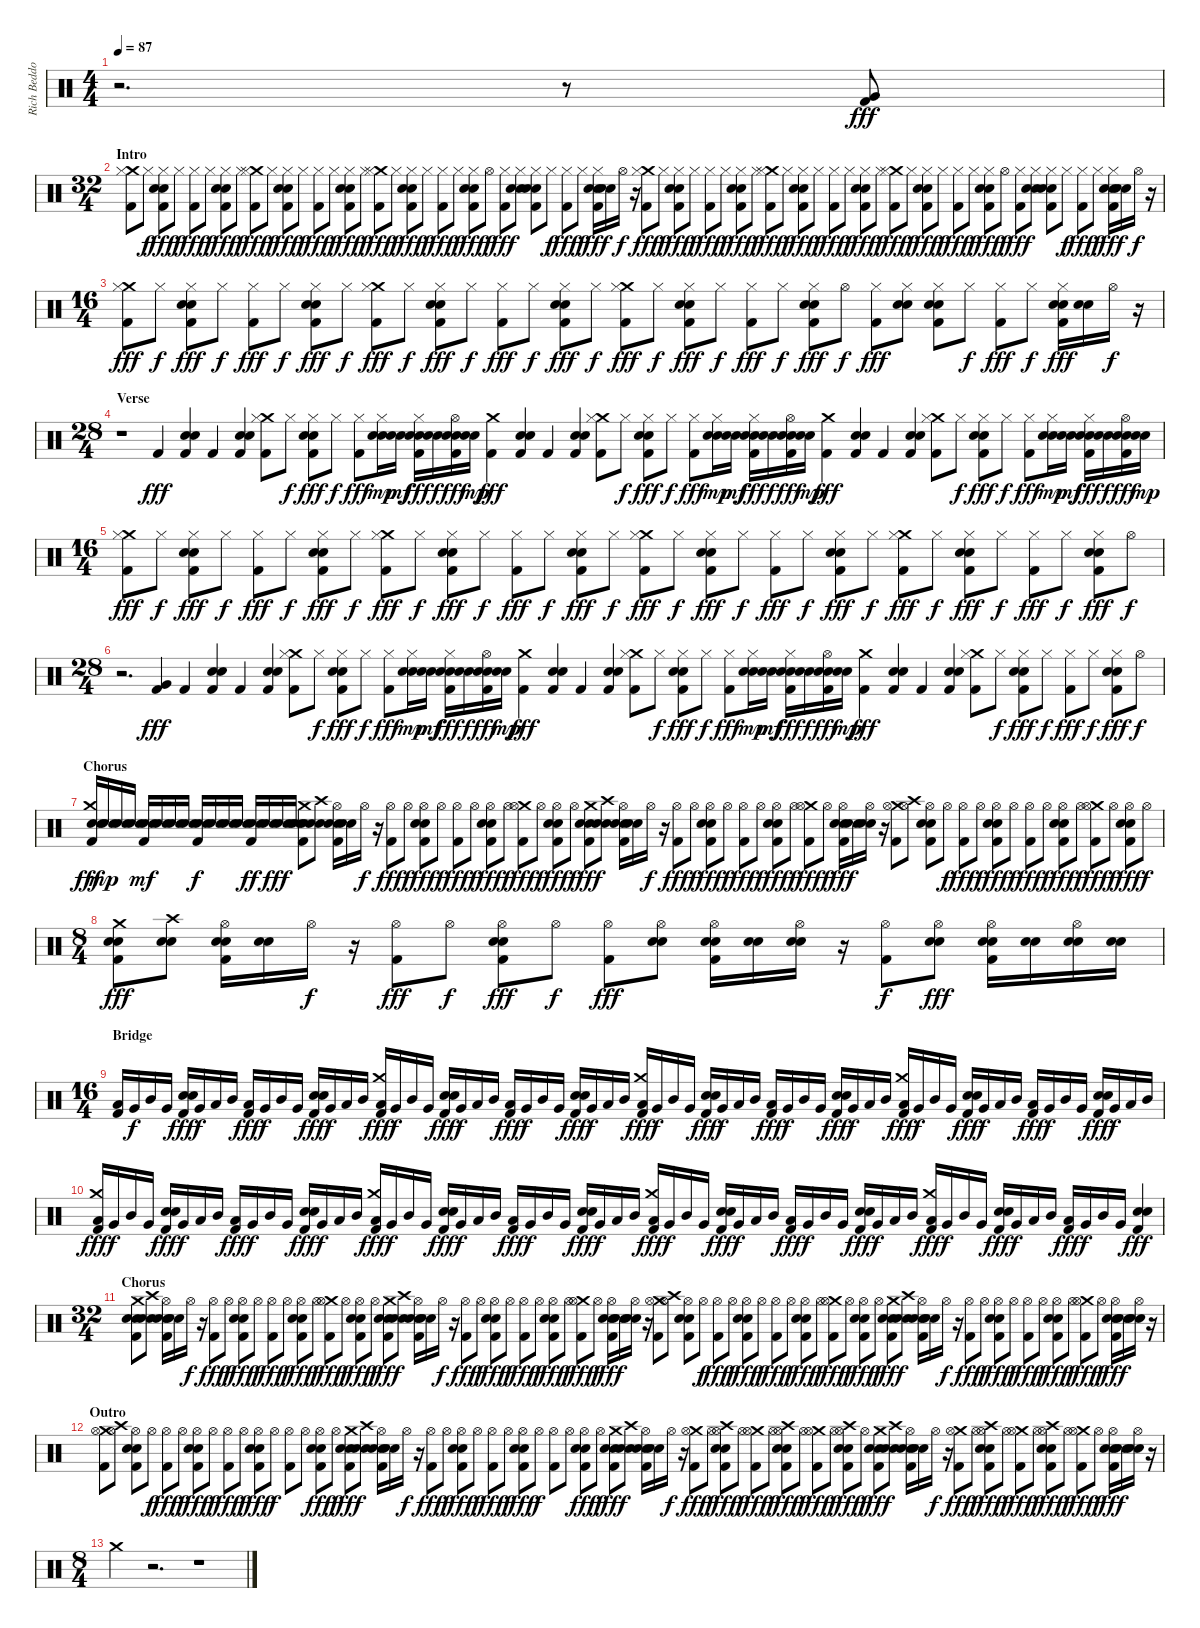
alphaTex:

\track ("Rich Beddoe" "Rich Beddo") {instrument percussion}
\staff {score}
\articulation defaults
\ts (4 4)
\tempo 87
\clef neutral
\ks c
r.2{d dy fff} r.8 ("Very Low Tom (hit)" "Kick (hit) 2").8 |
\ts (32 4)
\section ("" "Intro")
("Crash medium (hit)" "Hi-Hat (closed)" "Kick (hit) 2").8 "Hi-Hat (closed)".8{dy f} ("Electric Snare (hit)" "Hi-Hat (closed)" "Electric Snare (hit)" "Kick (hit) 2").8{dy fff} "Hi-Hat (closed)".8{dy f} ("Hi-Hat (closed)" "Kick (hit) 2").8{dy fff} "Hi-Hat (closed)".8{dy f} ("Electric Snare (hit)" "Hi-Hat (closed)" "Electric Snare (hit)" "Kick (hit) 2").8{dy fff} "Hi-Hat (closed)".8{dy f} ("Crash medium (hit)" "Hi-Hat (closed)" "Kick (hit) 2").8{dy fff} "Hi-Hat (closed)".8{dy f} ("Electric Snare (hit)" "Hi-Hat (closed)" "Electric Snare (hit)" "Kick (hit) 2").8{dy fff} "Hi-Hat (closed)".8{dy f} ("Hi-Hat (closed)" "Kick (hit) 2").8{dy fff} "Hi-Hat (closed)".8{dy f} ("Electric Snare (hit)" "Hi-Hat (closed)" "Electric Snare (hit)" "Kick (hit) 2").8{dy fff} "Hi-Hat (closed)".8{dy f} ("Crash medium (hit)" "Hi-Hat (closed)" "Kick (hit) 2").8{dy fff} "Hi-Hat (closed)".8{dy f} ("Electric Snare (hit)" "Hi-Hat (closed)" "Electric Snare (hit)" "Kick (hit) 2").8{dy fff} "Hi-Hat (closed)".8{dy f} ("Hi-Hat (closed)" "Kick (hit) 2").8{dy fff} "Hi-Hat (closed)".8{dy f} ("Electric Snare (hit)" "Hi-Hat (closed)" "Electric Snare (hit)" "Kick (hit) 2").8{dy fff} "Hi-Hat (open)".8{dy f} ("Hi-Hat (closed)" "Kick (hit) 2").8{dy fff} ("Electric Snare (hit)" "Hi-Hat (closed)" "Electric Snare (hit)").8 ("Electric Snare (hit)" "Hi-Hat (closed)" "Electric Snare (hit)" "Kick (hit) 2").8 "Hi-Hat (closed)".8{dy f} ("Hi-Hat (closed)" "Kick (hit) 2").8{dy fff} "Hi-Hat (closed)".8{dy f} ("Electric Snare (hit)" "Hi-Hat (closed)" "Electric Snare (hit)" "Kick (hit) 2").16{dy fff} ("Electric Snare (hit)" "Electric Snare (hit)").16 "Hi-Hat (open)".16{dy f} r.16 ("Crash medium (hit)" "Hi-Hat (closed)" "Kick (hit) 2").8{dy fff} "Hi-Hat (closed)".8{dy f} ("Electric Snare (hit)" "Hi-Hat (closed)" "Electric Snare (hit)" "Kick (hit) 2").8{dy fff} "Hi-Hat (closed)".8{dy f} ("Hi-Hat (closed)" "Kick (hit) 2").8{dy fff} "Hi-Hat (closed)".8{dy f} ("Electric Snare (hit)" "Hi-Hat (closed)" "Electric Snare (hit)" "Kick (hit) 2").8{dy fff} "Hi-Hat (closed)".8{dy f} ("Crash medium (hit)" "Hi-Hat (closed)" "Kick (hit) 2").8{dy fff} "Hi-Hat (closed)".8{dy f} ("Electric Snare (hit)" "Hi-Hat (closed)" "Electric Snare (hit)" "Kick (hit) 2").8{dy fff} "Hi-Hat (closed)".8{dy f} ("Hi-Hat (closed)" "Kick (hit) 2").8{dy fff} "Hi-Hat (closed)".8{dy f} ("Electric Snare (hit)" "Hi-Hat (closed)" "Electric Snare (hit)" "Kick (hit) 2").8{dy fff} "Hi-Hat (closed)".8{dy f} ("Crash medium (hit)" "Hi-Hat (closed)" "Kick (hit) 2").8{dy fff} "Hi-Hat (closed)".8{dy f} ("Electric Snare (hit)" "Hi-Hat (closed)" "Electric Snare (hit)" "Kick (hit) 2").8{dy fff} "Hi-Hat (closed)".8{dy f} ("Hi-Hat (closed)" "Kick (hit) 2").8{dy fff} "Hi-Hat (closed)".8{dy f} ("Electric Snare (hit)" "Hi-Hat (closed)" "Electric Snare (hit)" "Kick (hit) 2").8{dy fff} "Hi-Hat (open)".8{dy f} ("Hi-Hat (closed)" "Kick (hit) 2").8{dy fff} ("Electric Snare (hit)" "Hi-Hat (closed)" "Electric Snare (hit)").8 ("Electric Snare (hit)" "Hi-Hat (closed)" "Electric Snare (hit)" "Kick (hit) 2").8 "Hi-Hat (closed)".8{dy f} ("Hi-Hat (closed)" "Kick (hit) 2").8{dy fff} "Hi-Hat (closed)".8{dy f} ("Electric Snare (hit)" "Hi-Hat (closed)" "Electric Snare (hit)" "Kick (hit) 2").16{dy fff} ("Electric Snare (hit)" "Electric Snare (hit)").16 "Hi-Hat (open)".16{dy f} r.16 |
\ts (16 4)
("Crash medium (hit)" "Hi-Hat (closed)" "Kick (hit) 2").8{dy fff} "Hi-Hat (closed)".8{dy f} ("Electric Snare (hit)" "Hi-Hat (closed)" "Electric Snare (hit)" "Kick (hit) 2").8{dy fff} "Hi-Hat (closed)".8{dy f} ("Hi-Hat (closed)" "Kick (hit) 2").8{dy fff} "Hi-Hat (closed)".8{dy f} ("Electric Snare (hit)" "Hi-Hat (closed)" "Electric Snare (hit)" "Kick (hit) 2").8{dy fff} "Hi-Hat (closed)".8{dy f} ("Crash medium (hit)" "Hi-Hat (closed)" "Kick (hit) 2").8{dy fff} "Hi-Hat (closed)".8{dy f} ("Electric Snare (hit)" "Hi-Hat (closed)" "Electric Snare (hit)" "Kick (hit) 2").8{dy fff} "Hi-Hat (closed)".8{dy f} ("Hi-Hat (closed)" "Kick (hit) 2").8{dy fff} "Hi-Hat (closed)".8{dy f} ("Electric Snare (hit)" "Hi-Hat (closed)" "Electric Snare (hit)" "Kick (hit) 2").8{dy fff} "Hi-Hat (closed)".8{dy f} ("Crash medium (hit)" "Hi-Hat (closed)" "Kick (hit) 2").8{dy fff} "Hi-Hat (closed)".8{dy f} ("Electric Snare (hit)" "Hi-Hat (closed)" "Electric Snare (hit)" "Kick (hit) 2").8{dy fff} "Hi-Hat (closed)".8{dy f} ("Hi-Hat (closed)" "Kick (hit) 2").8{dy fff} "Hi-Hat (closed)".8{dy f} ("Electric Snare (hit)" "Hi-Hat (closed)" "Electric Snare (hit)" "Kick (hit) 2").8{dy fff} "Hi-Hat (open)".8{dy f} ("Hi-Hat (closed)" "Kick (hit) 2").8{dy fff} ("Electric Snare (hit)" "Hi-Hat (closed)" "Electric Snare (hit)").8 ("Electric Snare (hit)" "Hi-Hat (closed)" "Electric Snare (hit)" "Kick (hit) 2").8 "Hi-Hat (closed)".8{dy f} ("Hi-Hat (closed)" "Kick (hit) 2").8{dy fff} "Hi-Hat (closed)".8{dy f} ("Electric Snare (hit)" "Hi-Hat (closed)" "Electric Snare (hit)" "Kick (hit) 2").16{dy fff} ("Electric Snare (hit)" "Electric Snare (hit)").16 "Hi-Hat (open)".16{dy f} r.16 |
\ts (28 4)
\section ("" "Verse")
r.1 "Kick (hit) 2".4{dy fff} ("Electric Snare (hit)" "Electric Snare (hit)" "Kick (hit) 2").4 "Kick (hit) 2".4 ("Electric Snare (hit)" "Electric Snare (hit)" "Kick (hit) 2").4 ("Crash medium (hit)" "Hi-Hat (closed)" "Kick (hit) 2").8 "Hi-Hat (closed)".8{dy f} ("Electric Snare (hit)" "Hi-Hat (closed)" "Electric Snare (hit)" "Kick (hit) 2").8{dy fff} "Hi-Hat (closed)".8{dy f} ("Hi-Hat (closed)" "Kick (hit) 2").8{dy fff} ("Electric Snare (hit)" "Hi-Hat (closed)" "Electric Snare (hit)").16{dy mp} ("Electric Snare (hit)" "Electric Snare (hit)").16{dy mf} ("Electric Snare (hit)" "Hi-Hat (closed)" "Electric Snare (hit)" "Kick (hit) 2").16{dy fff} ("Electric Snare (hit)" "Electric Snare (hit)").16{dy f} ("Electric Snare (hit)" "Hi-Hat (open)" "Electric Snare (hit)" "Kick (hit) 2").16{dy fff} ("Electric Snare (hit)" "Electric Snare (hit)").16{dy mp} ("Crash medium (hit)" "Kick (hit) 2").4{dy fff} ("Electric Snare (hit)" "Electric Snare (hit)" "Kick (hit) 2").4 "Kick (hit) 2".4 ("Electric Snare (hit)" "Electric Snare (hit)" "Kick (hit) 2").4 ("Crash medium (hit)" "Hi-Hat (closed)" "Kick (hit) 2").8 "Hi-Hat (closed)".8{dy f} ("Electric Snare (hit)" "Hi-Hat (closed)" "Electric Snare (hit)" "Kick (hit) 2").8{dy fff} "Hi-Hat (closed)".8{dy f} ("Hi-Hat (closed)" "Kick (hit) 2").8{dy fff} ("Electric Snare (hit)" "Hi-Hat (closed)" "Electric Snare (hit)").16{dy mp} ("Electric Snare (hit)" "Electric Snare (hit)").16{dy mf} ("Electric Snare (hit)" "Hi-Hat (closed)" "Electric Snare (hit)" "Kick (hit) 2").16{dy fff} ("Electric Snare (hit)" "Electric Snare (hit)").16{dy f} ("Electric Snare (hit)" "Hi-Hat (open)" "Electric Snare (hit)" "Kick (hit) 2").16{dy fff} ("Electric Snare (hit)" "Electric Snare (hit)").16{dy mp} ("Crash medium (hit)" "Kick (hit) 2").4{dy fff} ("Electric Snare (hit)" "Electric Snare (hit)" "Kick (hit) 2").4 "Kick (hit) 2".4 ("Electric Snare (hit)" "Electric Snare (hit)" "Kick (hit) 2").4 ("Crash medium (hit)" "Hi-Hat (closed)" "Kick (hit) 2").8 "Hi-Hat (closed)".8{dy f} ("Electric Snare (hit)" "Hi-Hat (closed)" "Electric Snare (hit)" "Kick (hit) 2").8{dy fff} "Hi-Hat (closed)".8{dy f} ("Hi-Hat (closed)" "Kick (hit) 2").8{dy fff} ("Electric Snare (hit)" "Hi-Hat (closed)" "Electric Snare (hit)").16{dy mp} ("Electric Snare (hit)" "Electric Snare (hit)").16{dy mf} ("Electric Snare (hit)" "Hi-Hat (closed)" "Electric Snare (hit)" "Kick (hit) 2").16{dy fff} ("Electric Snare (hit)" "Electric Snare (hit)").16{dy f} ("Electric Snare (hit)" "Hi-Hat (open)" "Electric Snare (hit)" "Kick (hit) 2").16{dy fff} ("Electric Snare (hit)" "Electric Snare (hit)").16{dy mp} |
\ts (16 4)
("Crash medium (hit)" "Hi-Hat (closed)" "Kick (hit) 2").8{dy fff} "Hi-Hat (closed)".8{dy f} ("Electric Snare (hit)" "Hi-Hat (closed)" "Electric Snare (hit)" "Kick (hit) 2").8{dy fff} "Hi-Hat (closed)".8{dy f} ("Hi-Hat (closed)" "Kick (hit) 2").8{dy fff} "Hi-Hat (closed)".8{dy f} ("Electric Snare (hit)" "Hi-Hat (closed)" "Electric Snare (hit)" "Kick (hit) 2").8{dy fff} "Hi-Hat (closed)".8{dy f} ("Crash medium (hit)" "Hi-Hat (closed)" "Kick (hit) 2").8{dy fff} "Hi-Hat (closed)".8{dy f} ("Electric Snare (hit)" "Hi-Hat (closed)" "Electric Snare (hit)" "Kick (hit) 2").8{dy fff} "Hi-Hat (closed)".8{dy f} ("Hi-Hat (closed)" "Kick (hit) 2").8{dy fff} "Hi-Hat (closed)".8{dy f} ("Electric Snare (hit)" "Hi-Hat (closed)" "Electric Snare (hit)" "Kick (hit) 2").8{dy fff} "Hi-Hat (closed)".8{dy f} ("Crash medium (hit)" "Hi-Hat (closed)" "Kick (hit) 2").8{dy fff} "Hi-Hat (closed)".8{dy f} ("Electric Snare (hit)" "Hi-Hat (closed)" "Electric Snare (hit)" "Kick (hit) 2").8{dy fff} "Hi-Hat (closed)".8{dy f} ("Hi-Hat (closed)" "Kick (hit) 2").8{dy fff} "Hi-Hat (closed)".8{dy f} ("Electric Snare (hit)" "Hi-Hat (closed)" "Electric Snare (hit)" "Kick (hit) 2").8{dy fff} "Hi-Hat (closed)".8{dy f} ("Crash medium (hit)" "Hi-Hat (closed)" "Kick (hit) 2").8{dy fff} "Hi-Hat (closed)".8{dy f} ("Electric Snare (hit)" "Hi-Hat (closed)" "Electric Snare (hit)" "Kick (hit) 2").8{dy fff} "Hi-Hat (closed)".8{dy f} ("Hi-Hat (closed)" "Kick (hit) 2").8{dy fff} "Hi-Hat (closed)".8{dy f} ("Electric Snare (hit)" "Hi-Hat (closed)" "Electric Snare (hit)" "Kick (hit) 2").8{dy fff} "Hi-Hat (open)".8{dy f} |
\ts (28 4)
r.2{d} ("Very Low Tom (hit)" "Kick (hit) 2").4{dy fff} "Kick (hit) 2".4 ("Electric Snare (hit)" "Electric Snare (hit)" "Kick (hit) 2").4 "Kick (hit) 2".4 ("Electric Snare (hit)" "Electric Snare (hit)" "Kick (hit) 2").4 ("Crash medium (hit)" "Hi-Hat (closed)" "Kick (hit) 2").8 "Hi-Hat (closed)".8{dy f} ("Electric Snare (hit)" "Hi-Hat (closed)" "Electric Snare (hit)" "Kick (hit) 2").8{dy fff} "Hi-Hat (closed)".8{dy f} ("Hi-Hat (closed)" "Kick (hit) 2").8{dy fff} ("Electric Snare (hit)" "Hi-Hat (closed)" "Electric Snare (hit)").16{dy mp} ("Electric Snare (hit)" "Electric Snare (hit)").16{dy mf} ("Electric Snare (hit)" "Hi-Hat (closed)" "Electric Snare (hit)" "Kick (hit) 2").16{dy fff} ("Electric Snare (hit)" "Electric Snare (hit)").16{dy f} ("Electric Snare (hit)" "Hi-Hat (open)" "Electric Snare (hit)" "Kick (hit) 2").16{dy fff} ("Electric Snare (hit)" "Electric Snare (hit)").16{dy mp} ("Crash medium (hit)" "Kick (hit) 2").4{dy fff} ("Electric Snare (hit)" "Electric Snare (hit)" "Kick (hit) 2").4 "Kick (hit) 2".4 ("Electric Snare (hit)" "Electric Snare (hit)" "Kick (hit) 2").4 ("Crash medium (hit)" "Hi-Hat (closed)" "Kick (hit) 2").8 "Hi-Hat (closed)".8{dy f} ("Electric Snare (hit)" "Hi-Hat (closed)" "Electric Snare (hit)" "Kick (hit) 2").8{dy fff} "Hi-Hat (closed)".8{dy f} ("Hi-Hat (closed)" "Kick (hit) 2").8{dy fff} ("Electric Snare (hit)" "Hi-Hat (closed)" "Electric Snare (hit)").16{dy mp} ("Electric Snare (hit)" "Electric Snare (hit)").16{dy mf} ("Electric Snare (hit)" "Hi-Hat (closed)" "Electric Snare (hit)" "Kick (hit) 2").16{dy fff} ("Electric Snare (hit)" "Electric Snare (hit)").16{dy f} ("Electric Snare (hit)" "Hi-Hat (open)" "Electric Snare (hit)" "Kick (hit) 2").16{dy fff} ("Electric Snare (hit)" "Electric Snare (hit)").16{dy mp} ("Crash medium (hit)" "Kick (hit) 2").4{dy fff} ("Electric Snare (hit)" "Electric Snare (hit)" "Kick (hit) 2").4 "Kick (hit) 2".4 ("Electric Snare (hit)" "Electric Snare (hit)" "Kick (hit) 2").4 ("Crash medium (hit)" "Hi-Hat (closed)" "Kick (hit) 2").8 "Hi-Hat (closed)".8{dy f} ("Electric Snare (hit)" "Hi-Hat (closed)" "Electric Snare (hit)" "Kick (hit) 2").8{dy fff} "Hi-Hat (closed)".8{dy f} ("Hi-Hat (closed)" "Kick (hit) 2").8{dy fff} "Hi-Hat (closed)".8{dy f} ("Electric Snare (hit)" "Hi-Hat (closed)" "Electric Snare (hit)" "Kick (hit) 2").8{dy fff} "Hi-Hat (open)".8{dy f} |
\section ("" "Chorus")
("Crash medium (hit)" "Electric Snare (hit)" "Electric Snare (hit)" "Kick (hit) 2").16{dy fff} ("Electric Snare (hit)" "Electric Snare (hit)").16{dy mp} ("Electric Snare (hit)" "Electric Snare (hit)").16 ("Electric Snare (hit)" "Electric Snare (hit)").16 ("Electric Snare (hit)" "Electric Snare (hit)" "Kick (hit) 2").16{dy mf} ("Electric Snare (hit)" "Electric Snare (hit)").16 ("Electric Snare (hit)" "Electric Snare (hit)").16 ("Electric Snare (hit)" "Electric Snare (hit)").16 ("Electric Snare (hit)" "Electric Snare (hit)" "Kick (hit) 2").16{dy f} ("Electric Snare (hit)" "Electric Snare (hit)").16 ("Electric Snare (hit)" "Electric Snare (hit)").16 ("Electric Snare (hit)" "Electric Snare (hit)").16 ("Electric Snare (hit)" "Electric Snare (hit)" "Kick (hit) 2").16{dy ff} ("Electric Snare (hit)" "Electric Snare (hit)").16 ("Electric Snare (hit)" "Electric Snare (hit)").16{dy fff} ("Electric Snare (hit)" "Electric Snare (hit)").16 ("Crash medium (hit)" "Electric Snare (hit)" "Electric Snare (hit)" "Kick (hit) 2").8 ("Crash high (hit)" "Electric Snare (hit)" "Electric Snare (hit)").8 ("Electric Snare (hit)" "Hi-Hat (open)" "Electric Snare (hit)" "Kick (hit) 2").16 ("Electric Snare (hit)" "Electric Snare (hit)").16 "Hi-Hat (open)".16{dy f} r.16 ("Hi-Hat (open)" "Kick (hit) 2").8{dy fff} "Hi-Hat (open)".8{dy f} ("Electric Snare (hit)" "Hi-Hat (open)" "Electric Snare (hit)" "Kick (hit) 2").8{dy fff} "Hi-Hat (open)".8{dy f} ("Hi-Hat (open)" "Kick (hit) 2").8{dy fff} "Hi-Hat (open)".8{dy f} ("Electric Snare (hit)" "Hi-Hat (open)" "Electric Snare (hit)" "Kick (hit) 2").8{dy fff} "Hi-Hat (open)".8{dy f} ("Crash medium (hit)" "Hi-Hat (open)" "Kick (hit) 2").8{dy fff} "Hi-Hat (open)".8{dy f} ("Electric Snare (hit)" "Hi-Hat (open)" "Electric Snare (hit)" "Kick (hit) 2").8{dy fff} "Hi-Hat (open)".8{dy f} ("Crash medium (hit)" "Electric Snare (hit)" "Electric Snare (hit)" "Kick (hit) 2").8{dy fff} ("Crash high (hit)" "Electric Snare (hit)" "Electric Snare (hit)").8 ("Electric Snare (hit)" "Hi-Hat (open)" "Electric Snare (hit)" "Kick (hit) 2").16 ("Electric Snare (hit)" "Electric Snare (hit)").16 "Hi-Hat (open)".16{dy f} r.16 ("Hi-Hat (open)" "Kick (hit) 2").8{dy fff} "Hi-Hat (open)".8{dy f} ("Electric Snare (hit)" "Hi-Hat (open)" "Electric Snare (hit)" "Kick (hit) 2").8{dy fff} "Hi-Hat (open)".8{dy f} ("Hi-Hat (open)" "Kick (hit) 2").8{dy fff} "Hi-Hat (open)".8{dy f} ("Electric Snare (hit)" "Hi-Hat (open)" "Electric Snare (hit)" "Kick (hit) 2").8{dy fff} "Hi-Hat (open)".8{dy f} ("Crash medium (hit)" "Hi-Hat (open)" "Kick (hit) 2").8{dy fff} "Hi-Hat (open)".8{dy f} ("Electric Snare (hit)" "Hi-Hat (open)" "Electric Snare (hit)" "Kick (hit) 2").16{dy fff} ("Electric Snare (hit)" "Electric Snare (hit)").16 ("Electric Snare (hit)" "Hi-Hat (open)" "Electric Snare (hit)").16 r.16 ("Crash medium (hit)" "Hi-Hat (open)" "Kick (hit) 2").8 ("Crash high (hit)" "Hi-Hat (open)").8 ("Electric Snare (hit)" "Hi-Hat (open)" "Electric Snare (hit)" "Kick (hit) 2").8 "Hi-Hat (open)".8{dy f} ("Hi-Hat (open)" "Kick (hit) 2").8{dy fff} "Hi-Hat (open)".8{dy f} ("Electric Snare (hit)" "Hi-Hat (open)" "Electric Snare (hit)" "Kick (hit) 2").8{dy fff} "Hi-Hat (open)".8{dy f} ("Hi-Hat (open)" "Kick (hit) 2").8{dy fff} "Hi-Hat (open)".8{dy f} ("Electric Snare (hit)" "Hi-Hat (open)" "Electric Snare (hit)" "Kick (hit) 2").8{dy fff} "Hi-Hat (open)".8{dy f} ("Crash medium (hit)" "Hi-Hat (open)" "Kick (hit) 2").8{dy fff} "Hi-Hat (open)".8{dy f} ("Electric Snare (hit)" "Hi-Hat (open)" "Electric Snare (hit)" "Kick (hit) 2").8{dy fff} "Hi-Hat (open)".8{dy f} |
\ts (8 4)
("Crash medium (hit)" "Electric Snare (hit)" "Electric Snare (hit)" "Kick (hit) 2").8{dy fff} ("Crash high (hit)" "Electric Snare (hit)" "Electric Snare (hit)").8 ("Electric Snare (hit)" "Hi-Hat (open)" "Electric Snare (hit)" "Kick (hit) 2").16 ("Electric Snare (hit)" "Electric Snare (hit)").16 "Hi-Hat (open)".16{dy f} r.16 ("Hi-Hat (open)" "Kick (hit) 2").8{dy fff} "Hi-Hat (open)".8{dy f} ("Electric Snare (hit)" "Hi-Hat (open)" "Electric Snare (hit)" "Kick (hit) 2").8{dy fff} "Hi-Hat (open)".8{dy f} ("Hi-Hat (open)" "Kick (hit) 2").8{dy fff} ("Electric Snare (hit)" "Hi-Hat (open)" "Electric Snare (hit)").8 ("Electric Snare (hit)" "Hi-Hat (open)" "Electric Snare (hit)" "Kick (hit) 2").16 ("Electric Snare (hit)" "Electric Snare (hit)").16 ("Electric Snare (hit)" "Hi-Hat (open)" "Electric Snare (hit)").16 r.16 ("Hi-Hat (open)" "Kick (hit) 2").8{dy f} ("Electric Snare (hit)" "Hi-Hat (open)" "Electric Snare (hit)").8{dy fff} ("Electric Snare (hit)" "Hi-Hat (open)" "Electric Snare (hit)" "Kick (hit) 2").16 ("Electric Snare (hit)" "Electric Snare (hit)").16 ("Electric Snare (hit)" "Hi-Hat (open)" "Electric Snare (hit)").16 ("Electric Snare (hit)" "Electric Snare (hit)").16 |
\ts (16 4)
\section ("" "Bridge")
("Low Tom (hit)" "Kick (hit) 2").16 "Very Low Tom (hit)".16{dy f} "Mid Tom (hit)".16 "Very Low Tom (hit)".16 ("Electric Snare (hit)" "Electric Snare (hit)" "Kick (hit) 2").16{dy fff} "Very Low Tom (hit)".16{dy f} "Low Tom (hit)".16 "Mid Tom (hit)".16 ("Low Tom (hit)" "Kick (hit) 2").16{dy fff} "Very Low Tom (hit)".16{dy f} "Mid Tom (hit)".16 "Very Low Tom (hit)".16 ("Electric Snare (hit)" "Electric Snare (hit)" "Kick (hit) 2").16{dy fff} "Very Low Tom (hit)".16{dy f} "Low Tom (hit)".16 "Mid Tom (hit)".16 ("Crash medium (hit)" "Low Tom (hit)" "Kick (hit) 2").16{dy fff} "Very Low Tom (hit)".16{dy f} "Mid Tom (hit)".16 "Very Low Tom (hit)".16 ("Electric Snare (hit)" "Electric Snare (hit)" "Kick (hit) 2").16{dy fff} "Very Low Tom (hit)".16{dy f} "Low Tom (hit)".16 "Mid Tom (hit)".16 ("Low Tom (hit)" "Kick (hit) 2").16{dy fff} "Very Low Tom (hit)".16{dy f} "Mid Tom (hit)".16 "Very Low Tom (hit)".16 ("Electric Snare (hit)" "Electric Snare (hit)" "Kick (hit) 2").16{dy fff} "Very Low Tom (hit)".16{dy f} "Low Tom (hit)".16 "Mid Tom (hit)".16 ("Crash medium (hit)" "Low Tom (hit)" "Kick (hit) 2").16{dy fff} "Very Low Tom (hit)".16{dy f} "Mid Tom (hit)".16 "Very Low Tom (hit)".16 ("Electric Snare (hit)" "Electric Snare (hit)" "Kick (hit) 2").16{dy fff} "Very Low Tom (hit)".16{dy f} "Low Tom (hit)".16 "Mid Tom (hit)".16 ("Low Tom (hit)" "Kick (hit) 2").16{dy fff} "Very Low Tom (hit)".16{dy f} "Mid Tom (hit)".16 "Very Low Tom (hit)".16 ("Electric Snare (hit)" "Electric Snare (hit)" "Kick (hit) 2").16{dy fff} "Very Low Tom (hit)".16{dy f} "Low Tom (hit)".16 "Mid Tom (hit)".16 ("Crash medium (hit)" "Low Tom (hit)" "Kick (hit) 2").16{dy fff} "Very Low Tom (hit)".16{dy f} "Mid Tom (hit)".16 "Very Low Tom (hit)".16 ("Electric Snare (hit)" "Electric Snare (hit)" "Kick (hit) 2").16{dy fff} "Very Low Tom (hit)".16{dy f} "Low Tom (hit)".16 "Mid Tom (hit)".16 ("Low Tom (hit)" "Kick (hit) 2").16{dy fff} "Very Low Tom (hit)".16{dy f} "Mid Tom (hit)".16 "Very Low Tom (hit)".16 ("Electric Snare (hit)" "Electric Snare (hit)" "Kick (hit) 2").16{dy fff} "Very Low Tom (hit)".16{dy f} "Low Tom (hit)".16 "Mid Tom (hit)".16 |
("Crash medium (hit)" "Low Tom (hit)" "Kick (hit) 2").16{dy fff} "Very Low Tom (hit)".16{dy f} "Mid Tom (hit)".16 "Very Low Tom (hit)".16 ("Electric Snare (hit)" "Electric Snare (hit)" "Kick (hit) 2").16{dy fff} "Very Low Tom (hit)".16{dy f} "Low Tom (hit)".16 "Mid Tom (hit)".16 ("Low Tom (hit)" "Kick (hit) 2").16{dy fff} "Very Low Tom (hit)".16{dy f} "Mid Tom (hit)".16 "Very Low Tom (hit)".16 ("Electric Snare (hit)" "Electric Snare (hit)" "Kick (hit) 2").16{dy fff} "Very Low Tom (hit)".16{dy f} "Low Tom (hit)".16 "Mid Tom (hit)".16 ("Crash medium (hit)" "Low Tom (hit)" "Kick (hit) 2").16{dy fff} "Very Low Tom (hit)".16{dy f} "Mid Tom (hit)".16 "Very Low Tom (hit)".16 ("Electric Snare (hit)" "Electric Snare (hit)" "Kick (hit) 2").16{dy fff} "Very Low Tom (hit)".16{dy f} "Low Tom (hit)".16 "Mid Tom (hit)".16 ("Low Tom (hit)" "Kick (hit) 2").16{dy fff} "Very Low Tom (hit)".16{dy f} "Mid Tom (hit)".16 "Very Low Tom (hit)".16 ("Electric Snare (hit)" "Electric Snare (hit)" "Kick (hit) 2").16{dy fff} "Very Low Tom (hit)".16{dy f} "Low Tom (hit)".16 "Mid Tom (hit)".16 ("Crash medium (hit)" "Low Tom (hit)" "Kick (hit) 2").16{dy fff} "Very Low Tom (hit)".16{dy f} "Mid Tom (hit)".16 "Very Low Tom (hit)".16 ("Electric Snare (hit)" "Electric Snare (hit)" "Kick (hit) 2").16{dy fff} "Very Low Tom (hit)".16{dy f} "Low Tom (hit)".16 "Mid Tom (hit)".16 ("Low Tom (hit)" "Kick (hit) 2").16{dy fff} "Very Low Tom (hit)".16{dy f} "Mid Tom (hit)".16 "Very Low Tom (hit)".16 ("Electric Snare (hit)" "Electric Snare (hit)" "Kick (hit) 2").16{dy fff} "Very Low Tom (hit)".16{dy f} "Low Tom (hit)".16 "Mid Tom (hit)".16 ("Crash medium (hit)" "Low Tom (hit)" "Kick (hit) 2").16{dy fff} "Very Low Tom (hit)".16{dy f} "Mid Tom (hit)".16 "Very Low Tom (hit)".16 ("Electric Snare (hit)" "Electric Snare (hit)" "Kick (hit) 2").16{dy fff} "Very Low Tom (hit)".16{dy f} "Low Tom (hit)".16 "Mid Tom (hit)".16 ("Low Tom (hit)" "Kick (hit) 2").16{dy fff} "Very Low Tom (hit)".16{dy f} "Mid Tom (hit)".16 "Very Low Tom (hit)".16 ("Electric Snare (hit)" "Electric Snare (hit)" "Kick (hit) 2").4{dy fff} |
\ts (32 4)
\section ("" "Chorus")
("Crash medium (hit)" "Electric Snare (hit)" "Electric Snare (hit)" "Kick (hit) 2").8 ("Crash high (hit)" "Electric Snare (hit)" "Electric Snare (hit)").8 ("Electric Snare (hit)" "Hi-Hat (open)" "Electric Snare (hit)" "Kick (hit) 2").16 ("Electric Snare (hit)" "Electric Snare (hit)").16 "Hi-Hat (open)".16{dy f} r.16 ("Hi-Hat (open)" "Kick (hit) 2").8{dy fff} "Hi-Hat (open)".8{dy f} ("Electric Snare (hit)" "Hi-Hat (open)" "Electric Snare (hit)" "Kick (hit) 2").8{dy fff} "Hi-Hat (open)".8{dy f} ("Hi-Hat (open)" "Kick (hit) 2").8{dy fff} "Hi-Hat (open)".8{dy f} ("Electric Snare (hit)" "Hi-Hat (open)" "Electric Snare (hit)" "Kick (hit) 2").8{dy fff} "Hi-Hat (open)".8{dy f} ("Crash medium (hit)" "Hi-Hat (open)" "Kick (hit) 2").8{dy fff} "Hi-Hat (open)".8{dy f} ("Electric Snare (hit)" "Hi-Hat (open)" "Electric Snare (hit)" "Kick (hit) 2").8{dy fff} "Hi-Hat (open)".8{dy f} ("Crash medium (hit)" "Electric Snare (hit)" "Electric Snare (hit)" "Kick (hit) 2").8{dy fff} ("Crash high (hit)" "Electric Snare (hit)" "Electric Snare (hit)").8 ("Electric Snare (hit)" "Hi-Hat (open)" "Electric Snare (hit)" "Kick (hit) 2").16 ("Electric Snare (hit)" "Electric Snare (hit)").16 "Hi-Hat (open)".16{dy f} r.16 ("Hi-Hat (open)" "Kick (hit) 2").8{dy fff} "Hi-Hat (open)".8{dy f} ("Electric Snare (hit)" "Hi-Hat (open)" "Electric Snare (hit)" "Kick (hit) 2").8{dy fff} "Hi-Hat (open)".8{dy f} ("Hi-Hat (open)" "Kick (hit) 2").8{dy fff} "Hi-Hat (open)".8{dy f} ("Electric Snare (hit)" "Hi-Hat (open)" "Electric Snare (hit)" "Kick (hit) 2").8{dy fff} "Hi-Hat (open)".8{dy f} ("Crash medium (hit)" "Hi-Hat (open)" "Kick (hit) 2").8{dy fff} "Hi-Hat (open)".8{dy f} ("Electric Snare (hit)" "Hi-Hat (open)" "Electric Snare (hit)" "Kick (hit) 2").16{dy fff} ("Electric Snare (hit)" "Electric Snare (hit)").16 ("Electric Snare (hit)" "Hi-Hat (open)" "Electric Snare (hit)").16 r.16 ("Crash medium (hit)" "Hi-Hat (open)" "Kick (hit) 2").8 ("Crash high (hit)" "Hi-Hat (open)").8 ("Electric Snare (hit)" "Hi-Hat (open)" "Electric Snare (hit)" "Kick (hit) 2").8 "Hi-Hat (open)".8{dy f} ("Hi-Hat (open)" "Kick (hit) 2").8{dy fff} "Hi-Hat (open)".8{dy f} ("Electric Snare (hit)" "Hi-Hat (open)" "Electric Snare (hit)" "Kick (hit) 2").8{dy fff} "Hi-Hat (open)".8{dy f} ("Hi-Hat (open)" "Kick (hit) 2").8{dy fff} "Hi-Hat (open)".8{dy f} ("Electric Snare (hit)" "Hi-Hat (open)" "Electric Snare (hit)" "Kick (hit) 2").8{dy fff} "Hi-Hat (open)".8{dy f} ("Crash medium (hit)" "Hi-Hat (open)" "Kick (hit) 2").8{dy fff} "Hi-Hat (open)".8{dy f} ("Electric Snare (hit)" "Hi-Hat (open)" "Electric Snare (hit)" "Kick (hit) 2").8{dy fff} "Hi-Hat (open)".8{dy f} ("Crash medium (hit)" "Electric Snare (hit)" "Electric Snare (hit)" "Kick (hit) 2").8{dy fff} ("Crash high (hit)" "Electric Snare (hit)" "Electric Snare (hit)").8 ("Electric Snare (hit)" "Hi-Hat (open)" "Electric Snare (hit)" "Kick (hit) 2").16 ("Electric Snare (hit)" "Electric Snare (hit)").16 "Hi-Hat (open)".16{dy f} r.16 ("Hi-Hat (open)" "Kick (hit) 2").8{dy fff} "Hi-Hat (open)".8{dy f} ("Electric Snare (hit)" "Hi-Hat (open)" "Electric Snare (hit)" "Kick (hit) 2").8{dy fff} "Hi-Hat (open)".8{dy f} ("Hi-Hat (open)" "Kick (hit) 2").8{dy fff} "Hi-Hat (open)".8{dy f} ("Electric Snare (hit)" "Hi-Hat (open)" "Electric Snare (hit)" "Kick (hit) 2").8{dy fff} "Hi-Hat (open)".8{dy f} ("Crash medium (hit)" "Hi-Hat (open)" "Kick (hit) 2").8{dy fff} "Hi-Hat (open)".8{dy f} ("Electric Snare (hit)" "Hi-Hat (open)" "Electric Snare (hit)" "Kick (hit) 2").16{dy fff} ("Electric Snare (hit)" "Electric Snare (hit)").16 ("Electric Snare (hit)" "Hi-Hat (open)" "Electric Snare (hit)").16 r.16 |
\section ("" "Outro")
("Crash medium (hit)" "Hi-Hat (open)" "Kick (hit) 2").8 ("Crash high (hit)" "Hi-Hat (open)").8 ("Electric Snare (hit)" "Hi-Hat (open)" "Electric Snare (hit)" "Kick (hit) 2").8 "Hi-Hat (open)".8{dy f} ("Hi-Hat (open)" "Kick (hit) 2").8{dy fff} "Hi-Hat (open)".8{dy f} ("Electric Snare (hit)" "Hi-Hat (open)" "Electric Snare (hit)" "Kick (hit) 2").8{dy fff} "Hi-Hat (open)".8{dy f} ("Hi-Hat (open)" "Kick (hit) 2").8{dy fff} "Hi-Hat (open)".8{dy f} ("Electric Snare (hit)" "Hi-Hat (open)" "Electric Snare (hit)" "Kick (hit) 2").8{dy fff} "Hi-Hat (open)".8{dy f} ("Hi-Hat (open)" "Kick (hit) 2").8 "Hi-Hat (open)".8 ("Electric Snare (hit)" "Hi-Hat (open)" "Electric Snare (hit)" "Kick (hit) 2").8{dy fff} "Hi-Hat (open)".8{dy f} ("Crash medium (hit)" "Electric Snare (hit)" "Electric Snare (hit)" "Kick (hit) 2").8{dy fff} ("Crash high (hit)" "Electric Snare (hit)" "Electric Snare (hit)").8 ("Electric Snare (hit)" "Hi-Hat (open)" "Electric Snare (hit)" "Kick (hit) 2").16 ("Electric Snare (hit)" "Electric Snare (hit)").16 "Hi-Hat (open)".16{dy f} r.16 ("Hi-Hat (open)" "Kick (hit) 2").8{dy fff} "Hi-Hat (open)".8{dy f} ("Electric Snare (hit)" "Hi-Hat (open)" "Electric Snare (hit)" "Kick (hit) 2").8{dy fff} "Hi-Hat (open)".8{dy f} ("Hi-Hat (open)" "Kick (hit) 2").8{dy fff} "Hi-Hat (open)".8{dy f} ("Electric Snare (hit)" "Hi-Hat (open)" "Electric Snare (hit)" "Kick (hit) 2").8{dy fff} "Hi-Hat (open)".8{dy f} ("Hi-Hat (open)" "Kick (hit) 2").8 "Hi-Hat (open)".8 ("Electric Snare (hit)" "Hi-Hat (open)" "Electric Snare (hit)" "Kick (hit) 2").8{dy fff} "Hi-Hat (open)".8{dy f} ("Crash medium (hit)" "Electric Snare (hit)" "Electric Snare (hit)" "Kick (hit) 2").8{dy fff} ("Crash high (hit)" "Electric Snare (hit)" "Electric Snare (hit)").8 ("Electric Snare (hit)" "Hi-Hat (open)" "Electric Snare (hit)" "Kick (hit) 2").16 ("Electric Snare (hit)" "Electric Snare (hit)").16 "Hi-Hat (open)".16{dy f} r.16 ("Crash medium (hit)" "Hi-Hat (open)" "Kick (hit) 2").8{dy fff} "Hi-Hat (open)".8{dy f} ("Crash high (hit)" "Electric Snare (hit)" "Hi-Hat (open)" "Electric Snare (hit)" "Kick (hit) 2").8{dy fff} "Hi-Hat (open)".8{dy f} ("Crash medium (hit)" "Hi-Hat (open)" "Kick (hit) 2").8{dy fff} "Hi-Hat (open)".8{dy f} ("Crash high (hit)" "Electric Snare (hit)" "Hi-Hat (open)" "Electric Snare (hit)" "Kick (hit) 2").8{dy fff} "Hi-Hat (open)".8{dy f} ("Crash medium (hit)" "Hi-Hat (open)" "Kick (hit) 2").8{dy fff} "Hi-Hat (open)".8{dy f} ("Crash high (hit)" "Electric Snare (hit)" "Hi-Hat (open)" "Electric Snare (hit)" "Kick (hit) 2").8{dy fff} "Hi-Hat (open)".8{dy f} ("Crash medium (hit)" "Electric Snare (hit)" "Electric Snare (hit)" "Kick (hit) 2").8{dy fff} ("Crash high (hit)" "Electric Snare (hit)" "Electric Snare (hit)").8 ("Electric Snare (hit)" "Hi-Hat (open)" "Electric Snare (hit)" "Kick (hit) 2").16 ("Electric Snare (hit)" "Electric Snare (hit)").16 "Hi-Hat (open)".16{dy f} r.16 ("Crash medium (hit)" "Hi-Hat (open)" "Kick (hit) 2").8{dy fff} "Hi-Hat (open)".8{dy f} ("Crash high (hit)" "Electric Snare (hit)" "Hi-Hat (open)" "Electric Snare (hit)" "Kick (hit) 2").8{dy fff} "Hi-Hat (open)".8{dy f} ("Crash medium (hit)" "Hi-Hat (open)" "Kick (hit) 2").8{dy fff} "Hi-Hat (open)".8{dy f} ("Crash high (hit)" "Electric Snare (hit)" "Hi-Hat (open)" "Electric Snare (hit)" "Kick (hit) 2").8{dy fff} "Hi-Hat (open)".8{dy f} ("Crash medium (hit)" "Hi-Hat (open)" "Kick (hit) 2").8{dy fff} "Hi-Hat (open)".8{dy f} ("Electric Snare (hit)" "Hi-Hat (open)" "Electric Snare (hit)" "Kick (hit) 2").16{dy fff} ("Electric Snare (hit)" "Electric Snare (hit)").16 ("Electric Snare (hit)" "Hi-Hat (open)" "Electric Snare (hit)").16 r.16 |
\ts (8 4)
"Crash medium (hit)".4 r.2{d} r.1
